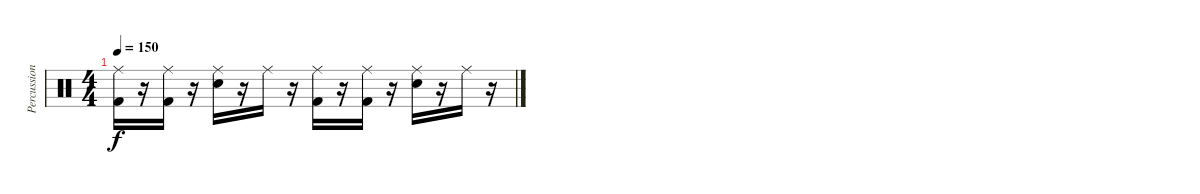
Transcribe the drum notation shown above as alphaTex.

\track ("Percussions" "Percussion") {instrument percussion}
\staff {score}
\articulation defaults
\ts (4 4)
\tempo 150
\clef neutral
\ks c
("Ride (middle)" "Kick (hit) 2").16{dy f} r.16 ("Ride (middle)" "Kick (hit) 2").16 r.16 ("Ride (middle)" "Snare (hit) 2").16 r.16 "Ride (middle)".16 r.16 ("Ride (middle)" "Kick (hit) 2").16 r.16 ("Ride (middle)" "Kick (hit) 2").16 r.16 ("Ride (middle)" "Snare (hit) 2").16 r.16 "Ride (middle)".16 r.16
